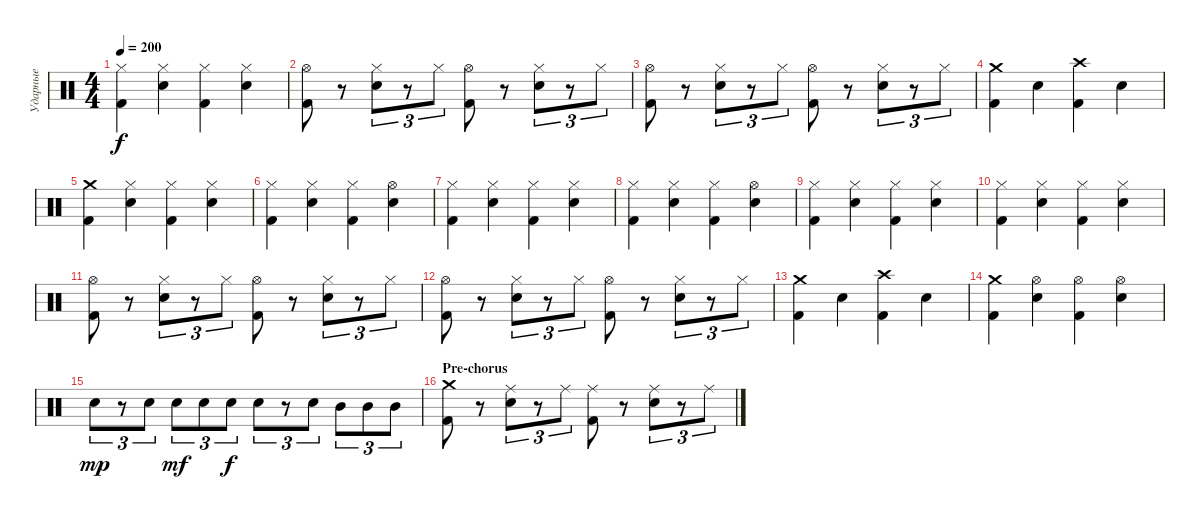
\track ("Ударные" "Ударные") {instrument percussion}
\staff {score}
\articulation defaults
\ts (4 4)
\tempo 200
\clef neutral
\ks c
("Hi-Hat (closed)" "Kick (hit) 2").4{dy f} ("Hi-Hat (closed)" "Electric Snare (hit)").4 ("Hi-Hat (closed)" "Kick (hit) 2").4 ("Hi-Hat (closed)" "Electric Snare (hit)").4 |
("Hi-Hat (open)" "Kick (hit) 2").8 r.8 ("Hi-Hat (closed)" "Electric Snare (hit)").8{tu (3 2)} r.8{tu (3 2)} "Hi-Hat (closed)".8{tu (3 2)} ("Hi-Hat (open)" "Kick (hit) 2").8 r.8 ("Hi-Hat (closed)" "Electric Snare (hit)").8{tu (3 2)} r.8{tu (3 2)} "Hi-Hat (closed)".8{tu (3 2)} |
("Hi-Hat (open)" "Kick (hit) 2").8 r.8 ("Hi-Hat (closed)" "Electric Snare (hit)").8{tu (3 2)} r.8{tu (3 2)} "Hi-Hat (closed)".8{tu (3 2)} ("Hi-Hat (open)" "Kick (hit) 2").8 r.8 ("Hi-Hat (closed)" "Electric Snare (hit)").8{tu (3 2)} r.8{tu (3 2)} "Hi-Hat (closed)".8{tu (3 2)} |
("Crash medium (hit)" "Kick (hit) 2").4 "Electric Snare (hit)".4 ("Crash high (hit)" "Kick (hit) 2").4 "Electric Snare (hit)".4 |
("Crash medium (hit)" "Kick (hit) 2").4 ("Hi-Hat (closed)" "Electric Snare (hit)").4 ("Hi-Hat (closed)" "Kick (hit) 2").4 ("Hi-Hat (closed)" "Electric Snare (hit)").4 |
("Hi-Hat (closed)" "Kick (hit) 2").4 ("Hi-Hat (closed)" "Electric Snare (hit)").4 ("Hi-Hat (closed)" "Kick (hit) 2").4 ("Hi-Hat (open)" "Electric Snare (hit)").4 |
("Hi-Hat (closed)" "Kick (hit) 2").4 ("Hi-Hat (closed)" "Electric Snare (hit)").4 ("Hi-Hat (closed)" "Kick (hit) 2").4 ("Hi-Hat (closed)" "Electric Snare (hit)").4 |
("Hi-Hat (closed)" "Kick (hit) 2").4 ("Hi-Hat (closed)" "Electric Snare (hit)").4 ("Hi-Hat (closed)" "Kick (hit) 2").4 ("Hi-Hat (open)" "Electric Snare (hit)").4 |
("Hi-Hat (closed)" "Kick (hit) 2").4 ("Hi-Hat (closed)" "Electric Snare (hit)").4 ("Hi-Hat (closed)" "Kick (hit) 2").4 ("Hi-Hat (closed)" "Electric Snare (hit)").4 |
("Hi-Hat (closed)" "Kick (hit) 2").4 ("Hi-Hat (closed)" "Electric Snare (hit)").4 ("Hi-Hat (closed)" "Kick (hit) 2").4 ("Hi-Hat (closed)" "Electric Snare (hit)").4 |
("Hi-Hat (open)" "Kick (hit) 2").8 r.8 ("Hi-Hat (closed)" "Electric Snare (hit)").8{tu (3 2)} r.8{tu (3 2)} "Hi-Hat (closed)".8{tu (3 2)} ("Hi-Hat (open)" "Kick (hit) 2").8 r.8 ("Hi-Hat (closed)" "Electric Snare (hit)").8{tu (3 2)} r.8{tu (3 2)} "Hi-Hat (closed)".8{tu (3 2)} |
("Hi-Hat (open)" "Kick (hit) 2").8 r.8 ("Hi-Hat (closed)" "Electric Snare (hit)").8{tu (3 2)} r.8{tu (3 2)} "Hi-Hat (closed)".8{tu (3 2)} ("Hi-Hat (open)" "Kick (hit) 2").8 r.8 ("Hi-Hat (closed)" "Electric Snare (hit)").8{tu (3 2)} r.8{tu (3 2)} "Hi-Hat (closed)".8{tu (3 2)} |
("Crash medium (hit)" "Kick (hit) 2").4 "Electric Snare (hit)".4 ("Crash high (hit)" "Kick (hit) 2").4 "Electric Snare (hit)".4 |
("Crash medium (hit)" "Kick (hit) 2").4 ("Hi-Hat (open)" "Electric Snare (hit)").4 ("Hi-Hat (open)" "Kick (hit) 2").4 ("Hi-Hat (open)" "Electric Snare (hit)").4 |
"Electric Snare (hit)".8{tu (3 2) dy mp} r.8{tu (3 2)} "Electric Snare (hit)".8{tu (3 2)} "Electric Snare (hit)".8{tu (3 2) dy mf} "Electric Snare (hit)".8{tu (3 2)} "Electric Snare (hit)".8{tu (3 2) dy f} "Electric Snare (hit)".8{tu (3 2)} r.8{tu (3 2)} "Electric Snare (hit)".8{tu (3 2)} "Mid Tom (hit)".8{tu (3 2)} "Mid Tom (hit)".8{tu (3 2)} "Mid Tom (hit)".8{tu (3 2)} |
\section ("" "Pre-chorus")
("Crash medium (hit)" "Kick (hit) 2").8 r.8 ("Ride (middle)" "Electric Snare (hit)").8{tu (3 2)} r.8{tu (3 2)} "Ride (middle)".8{tu (3 2)} ("Ride (middle)" "Kick (hit) 2").8 r.8 ("Ride (middle)" "Electric Snare (hit)").8{tu (3 2)} r.8{tu (3 2)} "Ride (middle)".8{tu (3 2)}
